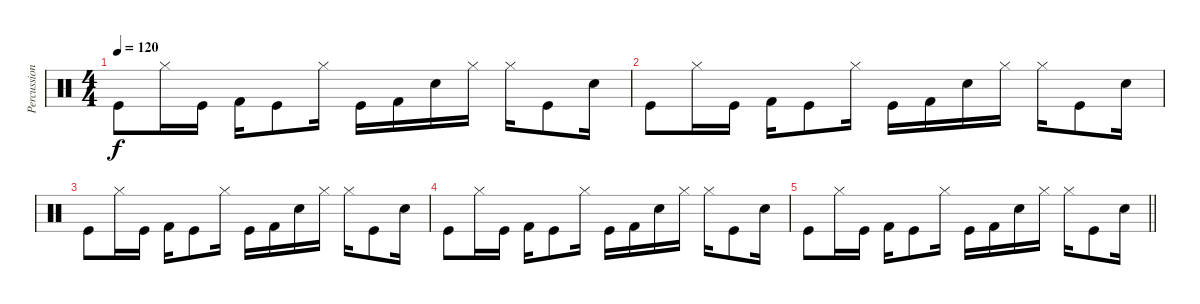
\track ("Percussion" "Percussion") {instrument percussion}
\staff {score}
\articulation defaults
\ts (4 4)
\tempo 120
\clef neutral
\ks c "Kick (hit)".8{dy f} "Hi-Hat (closed)".16 "Kick (hit)".16 "Kick (hit) 2".16 "Kick (hit)".8 "Hi-Hat (closed)".16 "Kick (hit)".16 "Kick (hit) 2".16 "Snare (hit) 2".16 "Hi-Hat (closed)".16 "Hi-Hat (closed)".16 "Kick (hit)".8 "Snare (hit) 2".16
|
"Kick (hit)".8 "Hi-Hat (closed)".16 "Kick (hit)".16 "Kick (hit) 2".16 "Kick (hit)".8 "Hi-Hat (closed)".16 "Kick (hit)".16 "Kick (hit) 2".16 "Snare (hit) 2".16 "Hi-Hat (closed)".16 "Hi-Hat (closed)".16 "Kick (hit)".8 "Snare (hit) 2".16 |
"Kick (hit)".8 "Hi-Hat (closed)".16 "Kick (hit)".16 "Kick (hit) 2".16 "Kick (hit)".8 "Hi-Hat (closed)".16 "Kick (hit)".16 "Kick (hit) 2".16 "Snare (hit) 2".16 "Hi-Hat (closed)".16 "Hi-Hat (closed)".16 "Kick (hit)".8 "Snare (hit) 2".16 |
"Kick (hit)".8 "Hi-Hat (closed)".16 "Kick (hit)".16 "Kick (hit) 2".16 "Kick (hit)".8 "Hi-Hat (closed)".16 "Kick (hit)".16 "Kick (hit) 2".16 "Snare (hit) 2".16 "Hi-Hat (closed)".16 "Hi-Hat (closed)".16 "Kick (hit)".8 "Snare (hit) 2".16 |
\barLineRight lightlight "Kick (hit)".8 "Hi-Hat (closed)".16 "Kick (hit)".16 "Kick (hit) 2".16 "Kick (hit)".8 "Hi-Hat (closed)".16 "Kick (hit)".16 "Kick (hit) 2".16 "Snare (hit) 2".16 "Hi-Hat (closed)".16 "Hi-Hat (closed)".16 "Kick (hit)".8 "Snare (hit) 2".16
